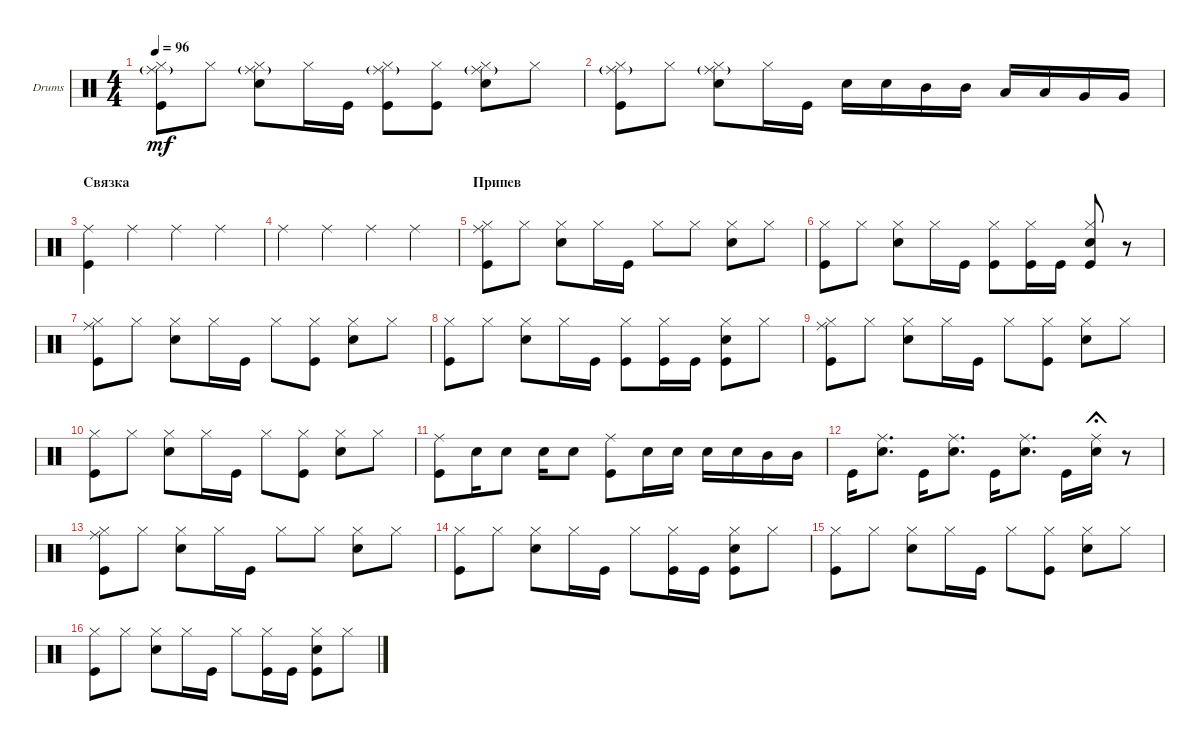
\bracketExtendMode groupsimilarinstruments
\firstSystemTrackNameOrientation horizontal
\otherSystemsTrackNameOrientation horizontal
\track ("Drumkit" "Drums") {instrument percussion}
\staff {score}
\articulation defaults
\ts (4 4)
\tempo 96
\clef neutral
\ks c
("Kick (hit)" "Hi-Hat (closed)" "Ride (middle)"{g}).8{dy mf} "Hi-Hat (closed)".8 ("Hi-Hat (closed)" "Snare (hit) 2" "Ride (middle)"{g}).8 "Hi-Hat (closed)".16 "Kick (hit)".16 ("Hi-Hat (closed)" "Kick (hit)" "Ride (middle)"{g}).8 ("Hi-Hat (closed)" "Kick (hit)").8 ("Hi-Hat (closed)" "Snare (hit) 2" "Ride (middle)"{g}).8 "Hi-Hat (closed)".8 |
("Kick (hit)" "Hi-Hat (closed)" "Ride (middle)"{g}).8 "Hi-Hat (closed)".8 ("Hi-Hat (closed)" "Snare (hit) 2" "Ride (middle)"{g}).8 "Hi-Hat (closed)".16 "Kick (hit)".16 "Snare (hit) 2".16 "Snare (hit) 2".16 "Mid Tom (hit)".16 "Mid Tom (hit)".16 "Low Tom (hit)".16 "Low Tom (hit)".16 "Very Low Tom (hit)".16 "Very Low Tom (hit)".16 |
\section ("" "Связка")
("Kick (hit)" "Ride (middle)").4 "Ride (middle)".4 "Ride (middle)".4 "Ride (middle)".4 |
"Ride (middle)".4 "Ride (middle)".4 "Ride (middle)".4 "Ride (middle)".4 |
\section ("" "Припев")
("Kick (hit)" "Hi-Hat (closed)" "Ride (middle)").8 "Hi-Hat (closed)".8 ("Hi-Hat (closed)" "Snare (hit) 2").8 "Hi-Hat (closed)".16 "Kick (hit)".16 "Hi-Hat (closed)".8 "Hi-Hat (closed)".8 ("Hi-Hat (closed)" "Snare (hit) 2").8 "Hi-Hat (closed)".8 |
("Kick (hit)" "Hi-Hat (closed)").8 "Hi-Hat (closed)".8 ("Hi-Hat (closed)" "Snare (hit) 2").8 "Hi-Hat (closed)".16 "Kick (hit)".16 ("Hi-Hat (closed)" "Kick (hit)").8 ("Hi-Hat (closed)" "Kick (hit)").16 "Kick (hit)".16 ("Hi-Hat (closed)" "Snare (hit) 2" "Kick (hit)").8 r.8 |
("Kick (hit)" "Hi-Hat (closed)" "Ride (middle)").8 "Hi-Hat (closed)".8 ("Hi-Hat (closed)" "Snare (hit) 2").8 "Hi-Hat (closed)".16 "Kick (hit)".16 "Hi-Hat (closed)".8 ("Hi-Hat (closed)" "Kick (hit)").8 ("Hi-Hat (closed)" "Snare (hit) 2").8 "Hi-Hat (closed)".8 |
("Kick (hit)" "Hi-Hat (closed)").8 "Hi-Hat (closed)".8 ("Hi-Hat (closed)" "Snare (hit) 2").8 "Hi-Hat (closed)".16 "Kick (hit)".16 ("Hi-Hat (closed)" "Kick (hit)").8 ("Hi-Hat (closed)" "Kick (hit)").16 "Kick (hit)".16 ("Hi-Hat (closed)" "Snare (hit) 2" "Kick (hit)").8 "Hi-Hat (closed)".8 |
("Kick (hit)" "Hi-Hat (closed)" "Ride (middle)").8 "Hi-Hat (closed)".8 ("Hi-Hat (closed)" "Snare (hit) 2").8 "Hi-Hat (closed)".16 "Kick (hit)".16 "Hi-Hat (closed)".8 ("Hi-Hat (closed)" "Kick (hit)").8 ("Hi-Hat (closed)" "Snare (hit) 2").8 "Hi-Hat (closed)".8 |
("Kick (hit)" "Hi-Hat (closed)").8 "Hi-Hat (closed)".8 ("Hi-Hat (closed)" "Snare (hit) 2").8 "Hi-Hat (closed)".16 "Kick (hit)".16 "Hi-Hat (closed)".8 ("Hi-Hat (closed)" "Kick (hit)").8 ("Hi-Hat (closed)" "Snare (hit) 2").8 "Hi-Hat (closed)".8 |
("Kick (hit)" "Ride (middle)").8 "Snare (hit) 2".16 "Snare (hit) 2".8 "Snare (hit) 2".16 "Snare (hit) 2".8 ("Kick (hit)" "Ride (middle)").8 "Snare (hit) 2".16 "Snare (hit) 2".16 "Snare (hit) 2".16 "Snare (hit) 2".16 "Mid Tom (hit)".16 "Mid Tom (hit)".16 |
"Kick (hit)".16 ("Snare (hit) 2" "Ride (middle)").8{d} "Kick (hit)".16 ("Snare (hit) 2" "Ride (middle)").8{d} "Kick (hit)".16 ("Snare (hit) 2" "Ride (middle)").8{d} "Kick (hit)".16 ("Snare (hit) 2" "Ride (middle)").16{fermata (short 0)} r.8 |
("Kick (hit)" "Hi-Hat (closed)" "Ride (middle)").8 "Hi-Hat (closed)".8 ("Hi-Hat (closed)" "Snare (hit) 2").8 "Hi-Hat (closed)".16 "Kick (hit)".16 "Hi-Hat (closed)".8 "Hi-Hat (closed)".8 ("Hi-Hat (closed)" "Snare (hit) 2").8 "Hi-Hat (closed)".8 |
("Kick (hit)" "Hi-Hat (closed)").8 "Hi-Hat (closed)".8 ("Hi-Hat (closed)" "Snare (hit) 2").8 "Hi-Hat (closed)".16 "Kick (hit)".16 "Hi-Hat (closed)".8 ("Hi-Hat (closed)" "Kick (hit)").16 "Kick (hit)".16 ("Hi-Hat (closed)" "Snare (hit) 2" "Kick (hit)").8 "Hi-Hat (closed)".8 |
("Kick (hit)" "Hi-Hat (closed)").8 "Hi-Hat (closed)".8 ("Hi-Hat (closed)" "Snare (hit) 2").8 "Hi-Hat (closed)".16 "Kick (hit)".16 "Hi-Hat (closed)".8 ("Hi-Hat (closed)" "Kick (hit)").8 ("Hi-Hat (closed)" "Snare (hit) 2").8 "Hi-Hat (closed)".8 |
("Kick (hit)" "Hi-Hat (closed)").8 "Hi-Hat (closed)".8 ("Hi-Hat (closed)" "Snare (hit) 2").8 "Hi-Hat (closed)".16 "Kick (hit)".16 "Hi-Hat (closed)".8 ("Hi-Hat (closed)" "Kick (hit)").16 "Kick (hit)".16 ("Hi-Hat (closed)" "Snare (hit) 2" "Kick (hit)").8 "Hi-Hat (closed)".8
